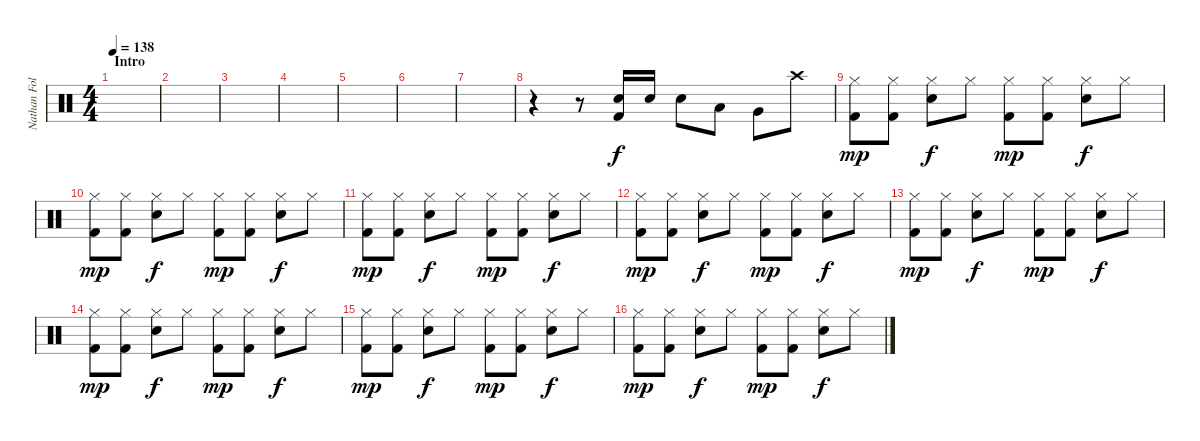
\track ("Nathan Followill" "Nathan Fol") {instrument percussion}
\staff {score}
\articulation defaults
\ts (4 4)
\section ("" "Intro")
\tempo 138
\clef neutral
\ks c
|
|
|
|
|
|
|
r.4 r.8 ("Snare (hit) 2" "Kick (hit) 2").16 "Snare (hit) 2".16 "Snare (hit) 2".8 "Low Tom (hit)".8 "Very Low Tom (hit)".8 "Crash high (hit)".8 |
("Hi-Hat (closed)" "Kick (hit) 2").8{dy mp} ("Hi-Hat (closed)" "Kick (hit) 2").8 ("Hi-Hat (closed)" "Snare (hit) 2").8{dy f} "Hi-Hat (closed)".8 ("Hi-Hat (closed)" "Kick (hit) 2").8{dy mp} ("Hi-Hat (closed)" "Kick (hit) 2").8 ("Hi-Hat (closed)" "Snare (hit) 2").8{dy f} "Hi-Hat (closed)".8 |
("Hi-Hat (closed)" "Kick (hit) 2").8{dy mp} ("Hi-Hat (closed)" "Kick (hit) 2").8 ("Hi-Hat (closed)" "Snare (hit) 2").8{dy f} "Hi-Hat (closed)".8 ("Hi-Hat (closed)" "Kick (hit) 2").8{dy mp} ("Hi-Hat (closed)" "Kick (hit) 2").8 ("Hi-Hat (closed)" "Snare (hit) 2").8{dy f} "Hi-Hat (closed)".8 |
("Hi-Hat (closed)" "Kick (hit) 2").8{dy mp} ("Hi-Hat (closed)" "Kick (hit) 2").8 ("Hi-Hat (closed)" "Snare (hit) 2").8{dy f} "Hi-Hat (closed)".8 ("Hi-Hat (closed)" "Kick (hit) 2").8{dy mp} ("Hi-Hat (closed)" "Kick (hit) 2").8 ("Hi-Hat (closed)" "Snare (hit) 2").8{dy f} "Hi-Hat (closed)".8 |
("Hi-Hat (closed)" "Kick (hit) 2").8{dy mp} ("Hi-Hat (closed)" "Kick (hit) 2").8 ("Hi-Hat (closed)" "Snare (hit) 2").8{dy f} "Hi-Hat (closed)".8 ("Hi-Hat (closed)" "Kick (hit) 2").8{dy mp} ("Hi-Hat (closed)" "Kick (hit) 2").8 ("Hi-Hat (closed)" "Snare (hit) 2").8{dy f} "Hi-Hat (closed)".8 |
("Hi-Hat (closed)" "Kick (hit) 2").8{dy mp} ("Hi-Hat (closed)" "Kick (hit) 2").8 ("Hi-Hat (closed)" "Snare (hit) 2").8{dy f} "Hi-Hat (closed)".8 ("Hi-Hat (closed)" "Kick (hit) 2").8{dy mp} ("Hi-Hat (closed)" "Kick (hit) 2").8 ("Hi-Hat (closed)" "Snare (hit) 2").8{dy f} "Hi-Hat (closed)".8 |
("Hi-Hat (closed)" "Kick (hit) 2").8{dy mp} ("Hi-Hat (closed)" "Kick (hit) 2").8 ("Hi-Hat (closed)" "Snare (hit) 2").8{dy f} "Hi-Hat (closed)".8 ("Hi-Hat (closed)" "Kick (hit) 2").8{dy mp} ("Hi-Hat (closed)" "Kick (hit) 2").8 ("Hi-Hat (closed)" "Snare (hit) 2").8{dy f} "Hi-Hat (closed)".8 |
("Hi-Hat (closed)" "Kick (hit) 2").8{dy mp} ("Hi-Hat (closed)" "Kick (hit) 2").8 ("Hi-Hat (closed)" "Snare (hit) 2").8{dy f} "Hi-Hat (closed)".8 ("Hi-Hat (closed)" "Kick (hit) 2").8{dy mp} ("Hi-Hat (closed)" "Kick (hit) 2").8 ("Hi-Hat (closed)" "Snare (hit) 2").8{dy f} "Hi-Hat (closed)".8 |
("Hi-Hat (closed)" "Kick (hit) 2").8{dy mp} ("Hi-Hat (closed)" "Kick (hit) 2").8 ("Hi-Hat (closed)" "Snare (hit) 2").8{dy f} "Hi-Hat (closed)".8 ("Hi-Hat (closed)" "Kick (hit) 2").8{dy mp} ("Hi-Hat (closed)" "Kick (hit) 2").8 ("Hi-Hat (closed)" "Snare (hit) 2").8{dy f} "Hi-Hat (closed)".8
